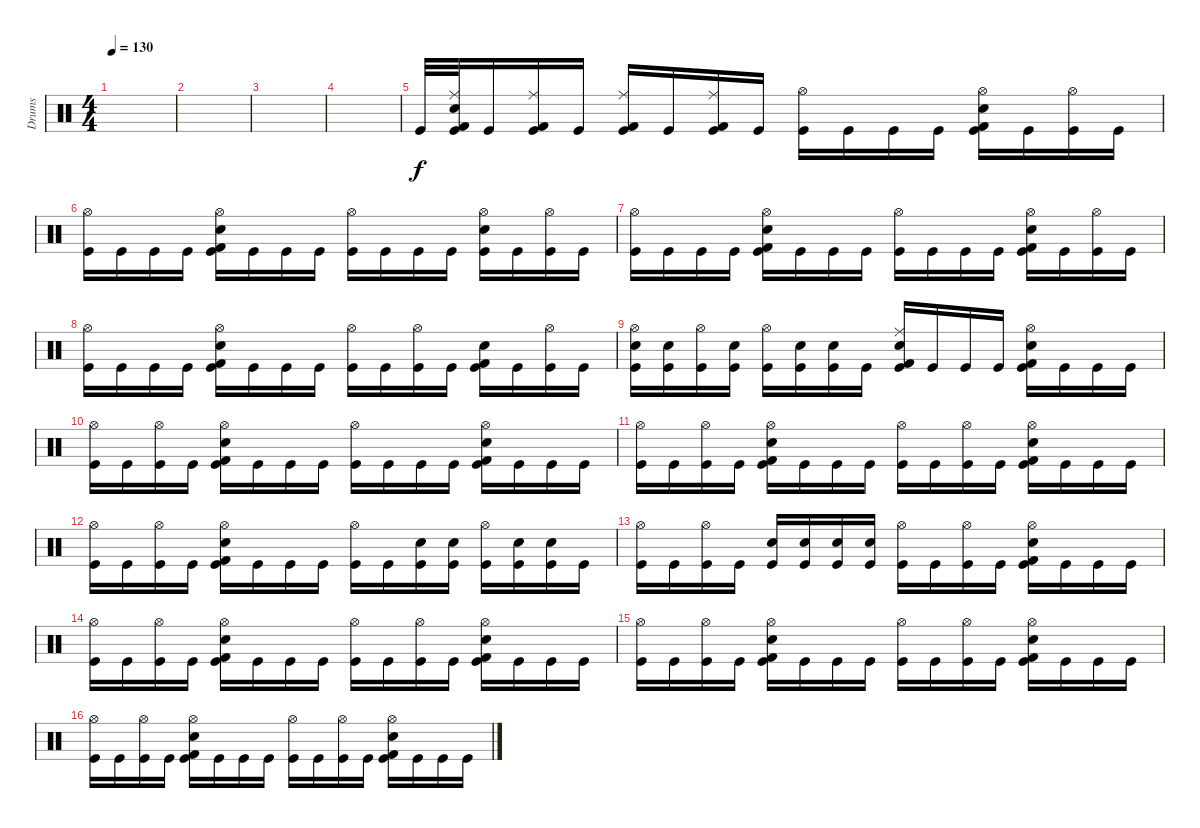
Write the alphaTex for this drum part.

\track ("Drums" "Drums") {instrument percussion}
\staff {score}
\articulation defaults
\ts (4 4)
\tempo 130
\clef neutral
\ks c
|
|
|
|
"Kick (hit)".32 ("Ride (middle)" "Kick (hit) 2" "Electric Snare (hit)" "Kick (hit)").32 "Kick (hit)".16 ("Ride (middle)" "Kick (hit) 2" "Kick (hit)").16 "Kick (hit)".16 ("Ride (middle)" "Kick (hit) 2" "Kick (hit)").16 "Kick (hit)".16 ("Ride (middle)" "Kick (hit) 2" "Kick (hit)").16 "Kick (hit)".16 ("Hi-Hat (open)" "Kick (hit)").16 "Kick (hit)".16 "Kick (hit)".16 "Kick (hit)".16 ("Kick (hit) 2" "Electric Snare (hit)" "Hi-Hat (open)" "Kick (hit)").16 "Kick (hit)".16 ("Hi-Hat (open)" "Kick (hit)").16 "Kick (hit)".16 |
("Hi-Hat (open)" "Kick (hit)").16 "Kick (hit)".16 "Kick (hit)".16 "Kick (hit)".16 ("Kick (hit) 2" "Electric Snare (hit)" "Hi-Hat (open)" "Kick (hit)").16 "Kick (hit)".16 "Kick (hit)".16 "Kick (hit)".16 ("Hi-Hat (open)" "Kick (hit)").16 "Kick (hit)".16 "Kick (hit)".16 "Kick (hit)".16 ("Electric Snare (hit)" "Hi-Hat (open)" "Kick (hit)").16 "Kick (hit)".16 ("Hi-Hat (open)" "Kick (hit)").16 "Kick (hit)".16 |
("Hi-Hat (open)" "Kick (hit)").16 "Kick (hit)".16 "Kick (hit)".16 "Kick (hit)".16 ("Kick (hit) 2" "Electric Snare (hit)" "Hi-Hat (open)" "Kick (hit)").16 "Kick (hit)".16 "Kick (hit)".16 "Kick (hit)".16 ("Hi-Hat (open)" "Kick (hit)").16 "Kick (hit)".16 "Kick (hit)".16 "Kick (hit)".16 ("Kick (hit) 2" "Electric Snare (hit)" "Hi-Hat (open)" "Kick (hit)").16 "Kick (hit)".16 ("Hi-Hat (open)" "Kick (hit)").16 "Kick (hit)".16 |
("Hi-Hat (open)" "Kick (hit)").16 "Kick (hit)".16 "Kick (hit)".16 "Kick (hit)".16 ("Kick (hit) 2" "Electric Snare (hit)" "Hi-Hat (open)" "Kick (hit)").16 "Kick (hit)".16 "Kick (hit)".16 "Kick (hit)".16 ("Hi-Hat (open)" "Kick (hit)").16 "Kick (hit)".16 ("Hi-Hat (open)" "Kick (hit)").16 "Kick (hit)".16 ("Kick (hit) 2" "Electric Snare (hit)" "Kick (hit)").16 "Kick (hit)".16 ("Hi-Hat (open)" "Kick (hit)").16 "Kick (hit)".16 |
("Electric Snare (hit)" "Hi-Hat (open)" "Kick (hit)").16 ("Electric Snare (hit)" "Kick (hit)").16 ("Hi-Hat (open)" "Kick (hit)").16 ("Electric Snare (hit)" "Kick (hit)").16 ("Hi-Hat (open)" "Kick (hit)").16 ("Electric Snare (hit)" "Kick (hit)").16 ("Electric Snare (hit)" "Kick (hit)").16 "Kick (hit)".16 ("Ride (middle)" "Kick (hit) 2" "Electric Snare (hit)" "Kick (hit)").16 "Kick (hit)".16 "Kick (hit)".16 "Kick (hit)".16 ("Kick (hit) 2" "Electric Snare (hit)" "Hi-Hat (open)" "Kick (hit)").16 "Kick (hit)".16 "Kick (hit)".16 "Kick (hit)".16 |
("Hi-Hat (open)" "Kick (hit)").16 "Kick (hit)".16 ("Hi-Hat (open)" "Kick (hit)").16 "Kick (hit)".16 ("Kick (hit) 2" "Electric Snare (hit)" "Hi-Hat (open)" "Kick (hit)").16 "Kick (hit)".16 "Kick (hit)".16 "Kick (hit)".16 ("Hi-Hat (open)" "Kick (hit)").16 "Kick (hit)".16 "Kick (hit)".16 "Kick (hit)".16 ("Kick (hit) 2" "Electric Snare (hit)" "Hi-Hat (open)" "Kick (hit)").16 "Kick (hit)".16 "Kick (hit)".16 "Kick (hit)".16 |
("Hi-Hat (open)" "Kick (hit)").16 "Kick (hit)".16 ("Hi-Hat (open)" "Kick (hit)").16 "Kick (hit)".16 ("Kick (hit) 2" "Electric Snare (hit)" "Hi-Hat (open)" "Kick (hit)").16 "Kick (hit)".16 "Kick (hit)".16 "Kick (hit)".16 ("Hi-Hat (open)" "Kick (hit)").16 "Kick (hit)".16 ("Hi-Hat (open)" "Kick (hit)").16 "Kick (hit)".16 ("Kick (hit) 2" "Electric Snare (hit)" "Hi-Hat (open)" "Kick (hit)").16 "Kick (hit)".16 "Kick (hit)".16 "Kick (hit)".16 |
("Hi-Hat (open)" "Kick (hit)").16 "Kick (hit)".16 ("Hi-Hat (open)" "Kick (hit)").16 "Kick (hit)".16 ("Kick (hit) 2" "Electric Snare (hit)" "Hi-Hat (open)" "Kick (hit)").16 "Kick (hit)".16 "Kick (hit)".16 "Kick (hit)".16 ("Hi-Hat (open)" "Kick (hit)").16 "Kick (hit)".16 ("Electric Snare (hit)" "Kick (hit)").16 ("Electric Snare (hit)" "Kick (hit)").16 ("Hi-Hat (open)" "Kick (hit)").16 ("Electric Snare (hit)" "Kick (hit)").16 ("Electric Snare (hit)" "Kick (hit)").16 "Kick (hit)".16 |
("Hi-Hat (open)" "Kick (hit)").16 "Kick (hit)".16 ("Hi-Hat (open)" "Kick (hit)").16 "Kick (hit)".16 ("Electric Snare (hit)" "Kick (hit)").16 ("Electric Snare (hit)" "Kick (hit)").16 ("Electric Snare (hit)" "Kick (hit)").16 ("Electric Snare (hit)" "Kick (hit)").16 ("Hi-Hat (open)" "Kick (hit)").16 "Kick (hit)".16 ("Hi-Hat (open)" "Kick (hit)").16 "Kick (hit)".16 ("Kick (hit) 2" "Electric Snare (hit)" "Hi-Hat (open)" "Kick (hit)").16 "Kick (hit)".16 "Kick (hit)".16 "Kick (hit)".16 |
("Hi-Hat (open)" "Kick (hit)").16 "Kick (hit)".16 ("Hi-Hat (open)" "Kick (hit)").16 "Kick (hit)".16 ("Kick (hit) 2" "Electric Snare (hit)" "Hi-Hat (open)" "Kick (hit)").16 "Kick (hit)".16 "Kick (hit)".16 "Kick (hit)".16 ("Hi-Hat (open)" "Kick (hit)").16 "Kick (hit)".16 ("Hi-Hat (open)" "Kick (hit)").16 "Kick (hit)".16 ("Kick (hit) 2" "Electric Snare (hit)" "Hi-Hat (open)" "Kick (hit)").16 "Kick (hit)".16 "Kick (hit)".16 "Kick (hit)".16 |
("Hi-Hat (open)" "Kick (hit)").16 "Kick (hit)".16 ("Hi-Hat (open)" "Kick (hit)").16 "Kick (hit)".16 ("Kick (hit) 2" "Electric Snare (hit)" "Hi-Hat (open)" "Kick (hit)").16 "Kick (hit)".16 "Kick (hit)".16 "Kick (hit)".16 ("Hi-Hat (open)" "Kick (hit)").16 "Kick (hit)".16 ("Hi-Hat (open)" "Kick (hit)").16 "Kick (hit)".16 ("Kick (hit) 2" "Electric Snare (hit)" "Hi-Hat (open)" "Kick (hit)").16 "Kick (hit)".16 "Kick (hit)".16 "Kick (hit)".16 |
("Hi-Hat (open)" "Kick (hit)").16 "Kick (hit)".16 ("Hi-Hat (open)" "Kick (hit)").16 "Kick (hit)".16 ("Kick (hit) 2" "Electric Snare (hit)" "Hi-Hat (open)" "Kick (hit)").16 "Kick (hit)".16 "Kick (hit)".16 "Kick (hit)".16 ("Hi-Hat (open)" "Kick (hit)").16 "Kick (hit)".16 ("Hi-Hat (open)" "Kick (hit)").16 "Kick (hit)".16 ("Kick (hit) 2" "Electric Snare (hit)" "Hi-Hat (open)" "Kick (hit)").16 "Kick (hit)".16 "Kick (hit)".16 "Kick (hit)".16
